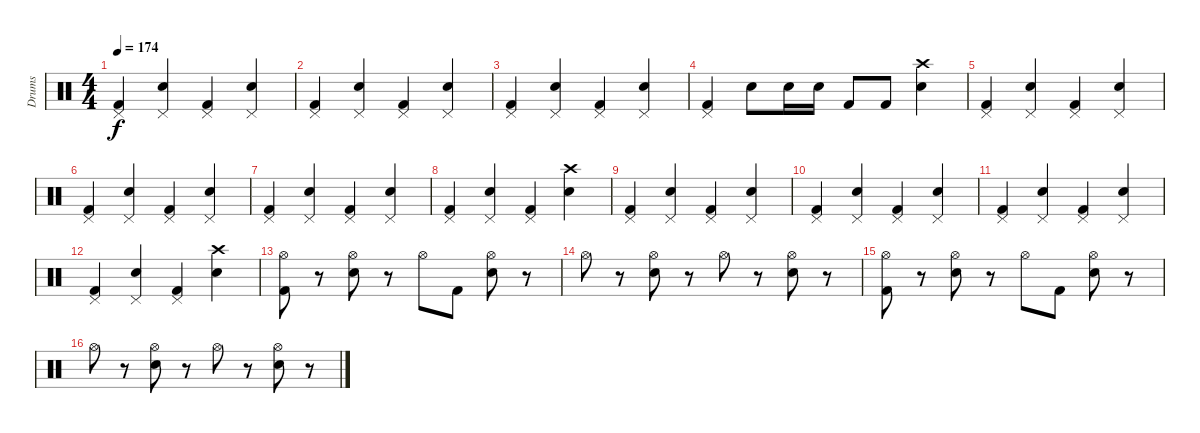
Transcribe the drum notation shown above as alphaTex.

\track ("Drums" "Drums") {instrument percussion}
\staff {score}
\articulation defaults
\ts (4 4)
\tempo 174
\clef neutral
\ks c
("Pedal Hi-Hat (hit)" "Kick (hit) 2").4{dy f volume 13} ("Pedal Hi-Hat (hit)" "Snare (hit) 2").4 ("Pedal Hi-Hat (hit)" "Kick (hit) 2").4 ("Pedal Hi-Hat (hit)" "Snare (hit) 2").4 |
("Pedal Hi-Hat (hit)" "Kick (hit) 2").4 ("Pedal Hi-Hat (hit)" "Snare (hit) 2").4 ("Pedal Hi-Hat (hit)" "Kick (hit) 2").4 ("Pedal Hi-Hat (hit)" "Snare (hit) 2").4 |
("Pedal Hi-Hat (hit)" "Kick (hit) 2").4 ("Pedal Hi-Hat (hit)" "Snare (hit) 2").4 ("Pedal Hi-Hat (hit)" "Kick (hit) 2").4 ("Pedal Hi-Hat (hit)" "Snare (hit) 2").4 |
("Pedal Hi-Hat (hit)" "Kick (hit) 2").4 "Snare (hit) 2".8 "Snare (hit) 2".16 "Snare (hit) 2".16 "Kick (hit) 2".8 "Kick (hit) 2".8 ("Crash high (hit)" "Snare (hit) 2").4 |
("Pedal Hi-Hat (hit)" "Kick (hit) 2").4 ("Pedal Hi-Hat (hit)" "Snare (hit) 2").4 ("Pedal Hi-Hat (hit)" "Kick (hit) 2").4 ("Pedal Hi-Hat (hit)" "Snare (hit) 2").4 |
("Pedal Hi-Hat (hit)" "Kick (hit) 2").4 ("Pedal Hi-Hat (hit)" "Snare (hit) 2").4 ("Pedal Hi-Hat (hit)" "Kick (hit) 2").4 ("Pedal Hi-Hat (hit)" "Snare (hit) 2").4 |
("Pedal Hi-Hat (hit)" "Kick (hit) 2").4 ("Pedal Hi-Hat (hit)" "Snare (hit) 2").4 ("Pedal Hi-Hat (hit)" "Kick (hit) 2").4 ("Pedal Hi-Hat (hit)" "Snare (hit) 2").4 |
("Pedal Hi-Hat (hit)" "Kick (hit) 2").4 ("Pedal Hi-Hat (hit)" "Snare (hit) 2").4 ("Pedal Hi-Hat (hit)" "Kick (hit) 2").4 ("Crash high (hit)" "Snare (hit) 2").4 |
("Pedal Hi-Hat (hit)" "Kick (hit) 2").4{volume 13} ("Pedal Hi-Hat (hit)" "Snare (hit) 2").4 ("Pedal Hi-Hat (hit)" "Kick (hit) 2").4 ("Pedal Hi-Hat (hit)" "Snare (hit) 2").4 |
("Pedal Hi-Hat (hit)" "Kick (hit) 2").4 ("Pedal Hi-Hat (hit)" "Snare (hit) 2").4 ("Pedal Hi-Hat (hit)" "Kick (hit) 2").4 ("Pedal Hi-Hat (hit)" "Snare (hit) 2").4 |
("Pedal Hi-Hat (hit)" "Kick (hit) 2").4 ("Pedal Hi-Hat (hit)" "Snare (hit) 2").4 ("Pedal Hi-Hat (hit)" "Kick (hit) 2").4 ("Pedal Hi-Hat (hit)" "Snare (hit) 2").4 |
("Pedal Hi-Hat (hit)" "Kick (hit) 2").4 ("Pedal Hi-Hat (hit)" "Snare (hit) 2").4 ("Pedal Hi-Hat (hit)" "Kick (hit) 2").4 ("Crash high (hit)" "Snare (hit) 2").4 |
("Hi-Hat (open)" "Kick (hit) 2").8 r.8 ("Hi-Hat (open)" "Snare (hit) 2").8 r.8 "Hi-Hat (open)".8 "Kick (hit) 2".8 ("Hi-Hat (open)" "Snare (hit) 2").8 r.8 |
"Hi-Hat (open)".8 r.8 ("Hi-Hat (open)" "Snare (hit) 2").8 r.8 "Hi-Hat (open)".8 r.8 ("Hi-Hat (open)" "Snare (hit) 2").8 r.8 |
("Hi-Hat (open)" "Kick (hit) 2").8 r.8 ("Hi-Hat (open)" "Snare (hit) 2").8 r.8 "Hi-Hat (open)".8 "Kick (hit) 2".8 ("Hi-Hat (open)" "Snare (hit) 2").8 r.8 |
"Hi-Hat (open)".8 r.8 ("Hi-Hat (open)" "Snare (hit) 2").8 r.8 "Hi-Hat (open)".8 r.8 ("Hi-Hat (open)" "Snare (hit) 2").8 r.8
